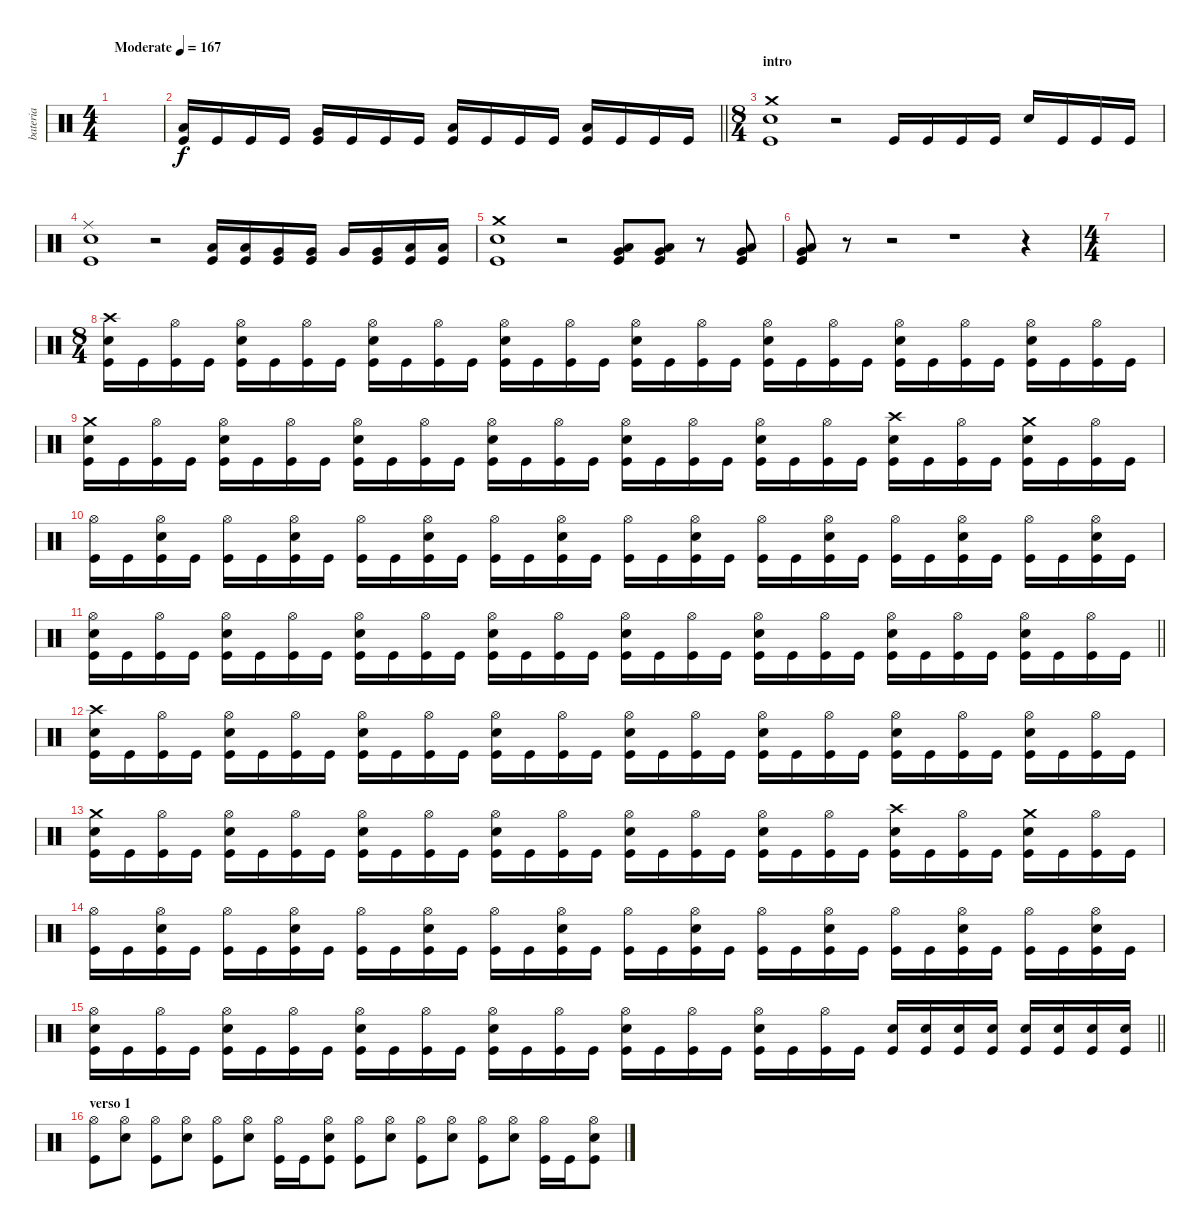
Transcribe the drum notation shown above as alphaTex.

\track ("bateria" "bateria") {instrument percussion}
\staff {score}
\articulation defaults
\ts (4 4)
\tempo (167 "Moderate")
\clef neutral
\ks c
|
\barLineRight lightlight
("Low Floor Tom (hit)" "Kick (hit)").16 "Kick (hit)".16 "Kick (hit)".16 "Kick (hit)".16 ("Very Low Tom (hit)" "Kick (hit)").16 "Kick (hit)".16 "Kick (hit)".16 "Kick (hit)".16 ("Low Tom (hit)" "Kick (hit)").16 "Kick (hit)".16 "Kick (hit)".16 "Kick (hit)".16 ("Low Tom (hit)" "Kick (hit)").16 "Kick (hit)".16 "Kick (hit)".16 "Kick (hit)".16 |
\ts (8 4)
\section ("" "intro")
("Crash medium (hit)" "Snare (hit) 2" "Kick (hit)").1 r.2 "Kick (hit)".16 "Kick (hit)".16 "Kick (hit)".16 "Kick (hit)".16 "Snare (hit) 2".16 "Kick (hit)".16 "Kick (hit)".16 "Kick (hit)".16 |
("Ride (middle)" "Snare (hit) 2" "Kick (hit)").1 r.2 ("Low Floor Tom (hit)" "Kick (hit)").16 ("Low Floor Tom (hit)" "Kick (hit)").16 ("Very Low Tom (hit)" "Kick (hit)").16 ("Very Low Tom (hit)" "Kick (hit)").16 "Very Low Tom (hit)".16 ("Very Low Tom (hit)" "Kick (hit)").16 ("Low Tom (hit)" "Kick (hit)").16 ("Low Tom (hit)" "Kick (hit)").16 |
("Crash medium (hit)" "Snare (hit) 2" "Kick (hit)").1 r.2 ("Very Low Tom (hit)" "Low Floor Tom (hit)" "Kick (hit)").8 ("Very Low Tom (hit)" "Low Floor Tom (hit)" "Kick (hit)").8 r.8 ("Very Low Tom (hit)" "Low Floor Tom (hit)" "Kick (hit)").8 |
("Very Low Tom (hit)" "Low Floor Tom (hit)" "Kick (hit)").8 r.8 r.2 r.1 r.4 |
\ts (4 4)
|
\ts (8 4)
("Crash high (hit)" "Snare (hit) 2" "Kick (hit)").16 "Kick (hit)".16 ("Hi-Hat (open)" "Kick (hit)").16 "Kick (hit)".16 ("Hi-Hat (open)" "Snare (hit) 2" "Kick (hit)").16 "Kick (hit)".16 ("Hi-Hat (open)" "Kick (hit)").16 "Kick (hit)".16 ("Hi-Hat (open)" "Snare (hit) 2" "Kick (hit)").16 "Kick (hit)".16 ("Hi-Hat (open)" "Kick (hit)").16 "Kick (hit)".16 ("Hi-Hat (open)" "Snare (hit) 2" "Kick (hit)").16 "Kick (hit)".16 ("Hi-Hat (open)" "Kick (hit)").16 "Kick (hit)".16 ("Hi-Hat (open)" "Snare (hit) 2" "Kick (hit)").16 "Kick (hit)".16 ("Hi-Hat (open)" "Kick (hit)").16 "Kick (hit)".16 ("Hi-Hat (open)" "Snare (hit) 2" "Kick (hit)").16 "Kick (hit)".16 ("Hi-Hat (open)" "Kick (hit)").16 "Kick (hit)".16 ("Hi-Hat (open)" "Snare (hit) 2" "Kick (hit)").16 "Kick (hit)".16 ("Hi-Hat (open)" "Kick (hit)").16 "Kick (hit)".16 ("Hi-Hat (open)" "Snare (hit) 2" "Kick (hit)").16 "Kick (hit)".16 ("Hi-Hat (open)" "Kick (hit)").16 "Kick (hit)".16 |
("Crash medium (hit)" "Snare (hit) 2" "Kick (hit)").16 "Kick (hit)".16 ("Hi-Hat (open)" "Kick (hit)").16 "Kick (hit)".16 ("Hi-Hat (open)" "Snare (hit) 2" "Kick (hit)").16 "Kick (hit)".16 ("Hi-Hat (open)" "Kick (hit)").16 "Kick (hit)".16 ("Hi-Hat (open)" "Snare (hit) 2" "Kick (hit)").16 "Kick (hit)".16 ("Hi-Hat (open)" "Kick (hit)").16 "Kick (hit)".16 ("Hi-Hat (open)" "Snare (hit) 2" "Kick (hit)").16 "Kick (hit)".16 ("Hi-Hat (open)" "Kick (hit)").16 "Kick (hit)".16 ("Hi-Hat (open)" "Snare (hit) 2" "Kick (hit)").16 "Kick (hit)".16 ("Hi-Hat (open)" "Kick (hit)").16 "Kick (hit)".16 ("Hi-Hat (open)" "Snare (hit) 2" "Kick (hit)").16 "Kick (hit)".16 ("Hi-Hat (open)" "Kick (hit)").16 "Kick (hit)".16 ("Crash high (hit)" "Snare (hit) 2" "Kick (hit)").16 "Kick (hit)".16 ("Hi-Hat (open)" "Kick (hit)").16 "Kick (hit)".16 ("Crash medium (hit)" "Snare (hit) 2" "Kick (hit)").16 "Kick (hit)".16 ("Hi-Hat (open)" "Kick (hit)").16 "Kick (hit)".16 |
("Hi-Hat (open)" "Kick (hit)").16 "Kick (hit)".16 ("Hi-Hat (open)" "Snare (hit) 2" "Kick (hit)").16 "Kick (hit)".16 ("Hi-Hat (open)" "Kick (hit)").16 "Kick (hit)".16 ("Hi-Hat (open)" "Snare (hit) 2" "Kick (hit)").16 "Kick (hit)".16 ("Hi-Hat (open)" "Kick (hit)").16 "Kick (hit)".16 ("Hi-Hat (open)" "Snare (hit) 2" "Kick (hit)").16 "Kick (hit)".16 ("Hi-Hat (open)" "Kick (hit)").16 "Kick (hit)".16 ("Hi-Hat (open)" "Snare (hit) 2" "Kick (hit)").16 "Kick (hit)".16 ("Hi-Hat (open)" "Kick (hit)").16 "Kick (hit)".16 ("Hi-Hat (open)" "Snare (hit) 2" "Kick (hit)").16 "Kick (hit)".16 ("Hi-Hat (open)" "Kick (hit)").16 "Kick (hit)".16 ("Hi-Hat (open)" "Snare (hit) 2" "Kick (hit)").16 "Kick (hit)".16 ("Hi-Hat (open)" "Kick (hit)").16 "Kick (hit)".16 ("Hi-Hat (open)" "Snare (hit) 2" "Kick (hit)").16 "Kick (hit)".16 ("Hi-Hat (open)" "Kick (hit)").16 "Kick (hit)".16 ("Hi-Hat (open)" "Snare (hit) 2" "Kick (hit)").16 "Kick (hit)".16 |
\barLineRight lightlight
("Hi-Hat (open)" "Snare (hit) 2" "Kick (hit)").16 "Kick (hit)".16 ("Hi-Hat (open)" "Kick (hit)").16 "Kick (hit)".16 ("Hi-Hat (open)" "Snare (hit) 2" "Kick (hit)").16 "Kick (hit)".16 ("Hi-Hat (open)" "Kick (hit)").16 "Kick (hit)".16 ("Hi-Hat (open)" "Snare (hit) 2" "Kick (hit)").16 "Kick (hit)".16 ("Hi-Hat (open)" "Kick (hit)").16 "Kick (hit)".16 ("Hi-Hat (open)" "Snare (hit) 2" "Kick (hit)").16 "Kick (hit)".16 ("Hi-Hat (open)" "Kick (hit)").16 "Kick (hit)".16 ("Hi-Hat (open)" "Snare (hit) 2" "Kick (hit)").16 "Kick (hit)".16 ("Hi-Hat (open)" "Kick (hit)").16 "Kick (hit)".16 ("Hi-Hat (open)" "Snare (hit) 2" "Kick (hit)").16 "Kick (hit)".16 ("Hi-Hat (open)" "Kick (hit)").16 "Kick (hit)".16 ("Hi-Hat (open)" "Snare (hit) 2" "Kick (hit)").16 "Kick (hit)".16 ("Hi-Hat (open)" "Kick (hit)").16 "Kick (hit)".16 ("Hi-Hat (open)" "Snare (hit) 2" "Kick (hit)").16 "Kick (hit)".16 ("Hi-Hat (open)" "Kick (hit)").16 "Kick (hit)".16 |
("Crash high (hit)" "Snare (hit) 2" "Kick (hit)").16 "Kick (hit)".16 ("Hi-Hat (open)" "Kick (hit)").16 "Kick (hit)".16 ("Hi-Hat (open)" "Snare (hit) 2" "Kick (hit)").16 "Kick (hit)".16 ("Hi-Hat (open)" "Kick (hit)").16 "Kick (hit)".16 ("Hi-Hat (open)" "Snare (hit) 2" "Kick (hit)").16 "Kick (hit)".16 ("Hi-Hat (open)" "Kick (hit)").16 "Kick (hit)".16 ("Hi-Hat (open)" "Snare (hit) 2" "Kick (hit)").16 "Kick (hit)".16 ("Hi-Hat (open)" "Kick (hit)").16 "Kick (hit)".16 ("Hi-Hat (open)" "Snare (hit) 2" "Kick (hit)").16 "Kick (hit)".16 ("Hi-Hat (open)" "Kick (hit)").16 "Kick (hit)".16 ("Hi-Hat (open)" "Snare (hit) 2" "Kick (hit)").16 "Kick (hit)".16 ("Hi-Hat (open)" "Kick (hit)").16 "Kick (hit)".16 ("Hi-Hat (open)" "Snare (hit) 2" "Kick (hit)").16 "Kick (hit)".16 ("Hi-Hat (open)" "Kick (hit)").16 "Kick (hit)".16 ("Hi-Hat (open)" "Snare (hit) 2" "Kick (hit)").16 "Kick (hit)".16 ("Hi-Hat (open)" "Kick (hit)").16 "Kick (hit)".16 |
("Crash medium (hit)" "Snare (hit) 2" "Kick (hit)").16 "Kick (hit)".16 ("Hi-Hat (open)" "Kick (hit)").16 "Kick (hit)".16 ("Hi-Hat (open)" "Snare (hit) 2" "Kick (hit)").16 "Kick (hit)".16 ("Hi-Hat (open)" "Kick (hit)").16 "Kick (hit)".16 ("Hi-Hat (open)" "Snare (hit) 2" "Kick (hit)").16 "Kick (hit)".16 ("Hi-Hat (open)" "Kick (hit)").16 "Kick (hit)".16 ("Hi-Hat (open)" "Snare (hit) 2" "Kick (hit)").16 "Kick (hit)".16 ("Hi-Hat (open)" "Kick (hit)").16 "Kick (hit)".16 ("Hi-Hat (open)" "Snare (hit) 2" "Kick (hit)").16 "Kick (hit)".16 ("Hi-Hat (open)" "Kick (hit)").16 "Kick (hit)".16 ("Hi-Hat (open)" "Snare (hit) 2" "Kick (hit)").16 "Kick (hit)".16 ("Hi-Hat (open)" "Kick (hit)").16 "Kick (hit)".16 ("Crash high (hit)" "Snare (hit) 2" "Kick (hit)").16 "Kick (hit)".16 ("Hi-Hat (open)" "Kick (hit)").16 "Kick (hit)".16 ("Crash medium (hit)" "Snare (hit) 2" "Kick (hit)").16 "Kick (hit)".16 ("Hi-Hat (open)" "Kick (hit)").16 "Kick (hit)".16 |
("Hi-Hat (open)" "Kick (hit)").16 "Kick (hit)".16 ("Hi-Hat (open)" "Snare (hit) 2" "Kick (hit)").16 "Kick (hit)".16 ("Hi-Hat (open)" "Kick (hit)").16 "Kick (hit)".16 ("Hi-Hat (open)" "Snare (hit) 2" "Kick (hit)").16 "Kick (hit)".16 ("Hi-Hat (open)" "Kick (hit)").16 "Kick (hit)".16 ("Hi-Hat (open)" "Snare (hit) 2" "Kick (hit)").16 "Kick (hit)".16 ("Hi-Hat (open)" "Kick (hit)").16 "Kick (hit)".16 ("Hi-Hat (open)" "Snare (hit) 2" "Kick (hit)").16 "Kick (hit)".16 ("Hi-Hat (open)" "Kick (hit)").16 "Kick (hit)".16 ("Hi-Hat (open)" "Snare (hit) 2" "Kick (hit)").16 "Kick (hit)".16 ("Hi-Hat (open)" "Kick (hit)").16 "Kick (hit)".16 ("Hi-Hat (open)" "Snare (hit) 2" "Kick (hit)").16 "Kick (hit)".16 ("Hi-Hat (open)" "Kick (hit)").16 "Kick (hit)".16 ("Hi-Hat (open)" "Snare (hit) 2" "Kick (hit)").16 "Kick (hit)".16 ("Hi-Hat (open)" "Kick (hit)").16 "Kick (hit)".16 ("Hi-Hat (open)" "Snare (hit) 2" "Kick (hit)").16 "Kick (hit)".16 |
\barLineRight lightlight
("Hi-Hat (open)" "Snare (hit) 2" "Kick (hit)").16 "Kick (hit)".16 ("Hi-Hat (open)" "Kick (hit)").16 "Kick (hit)".16 ("Hi-Hat (open)" "Snare (hit) 2" "Kick (hit)").16 "Kick (hit)".16 ("Hi-Hat (open)" "Kick (hit)").16 "Kick (hit)".16 ("Hi-Hat (open)" "Snare (hit) 2" "Kick (hit)").16 "Kick (hit)".16 ("Hi-Hat (open)" "Kick (hit)").16 "Kick (hit)".16 ("Hi-Hat (open)" "Snare (hit) 2" "Kick (hit)").16 "Kick (hit)".16 ("Hi-Hat (open)" "Kick (hit)").16 "Kick (hit)".16 ("Hi-Hat (open)" "Snare (hit) 2" "Kick (hit)").16 "Kick (hit)".16 ("Hi-Hat (open)" "Kick (hit)").16 "Kick (hit)".16 ("Hi-Hat (open)" "Snare (hit) 2" "Kick (hit)").16 "Kick (hit)".16 ("Hi-Hat (open)" "Kick (hit)").16 "Kick (hit)".16 ("Snare (hit) 2" "Kick (hit)").16 ("Snare (hit) 2" "Kick (hit)").16 ("Snare (hit) 2" "Kick (hit)").16 ("Snare (hit) 2" "Kick (hit)").16 ("Snare (hit) 2" "Kick (hit)").16 ("Snare (hit) 2" "Kick (hit)").16 ("Snare (hit) 2" "Kick (hit)").16 ("Snare (hit) 2" "Kick (hit)").16 |
\section ("" "verso 1")
("Hi-Hat (open)" "Kick (hit)").8 ("Hi-Hat (open)" "Snare (hit) 2").8 ("Hi-Hat (open)" "Kick (hit)").8 ("Hi-Hat (open)" "Snare (hit) 2").8 ("Hi-Hat (open)" "Kick (hit)").8 ("Hi-Hat (open)" "Snare (hit) 2").8 ("Hi-Hat (open)" "Kick (hit)").16 "Kick (hit)".16 ("Hi-Hat (open)" "Snare (hit) 2" "Kick (hit)").8 ("Hi-Hat (open)" "Kick (hit)").8 ("Hi-Hat (open)" "Snare (hit) 2").8 ("Hi-Hat (open)" "Kick (hit)").8 ("Hi-Hat (open)" "Snare (hit) 2").8 ("Hi-Hat (open)" "Kick (hit)").8 ("Hi-Hat (open)" "Snare (hit) 2").8 ("Hi-Hat (open)" "Kick (hit)").16 "Kick (hit)".16 ("Hi-Hat (open)" "Snare (hit) 2" "Kick (hit)").8
